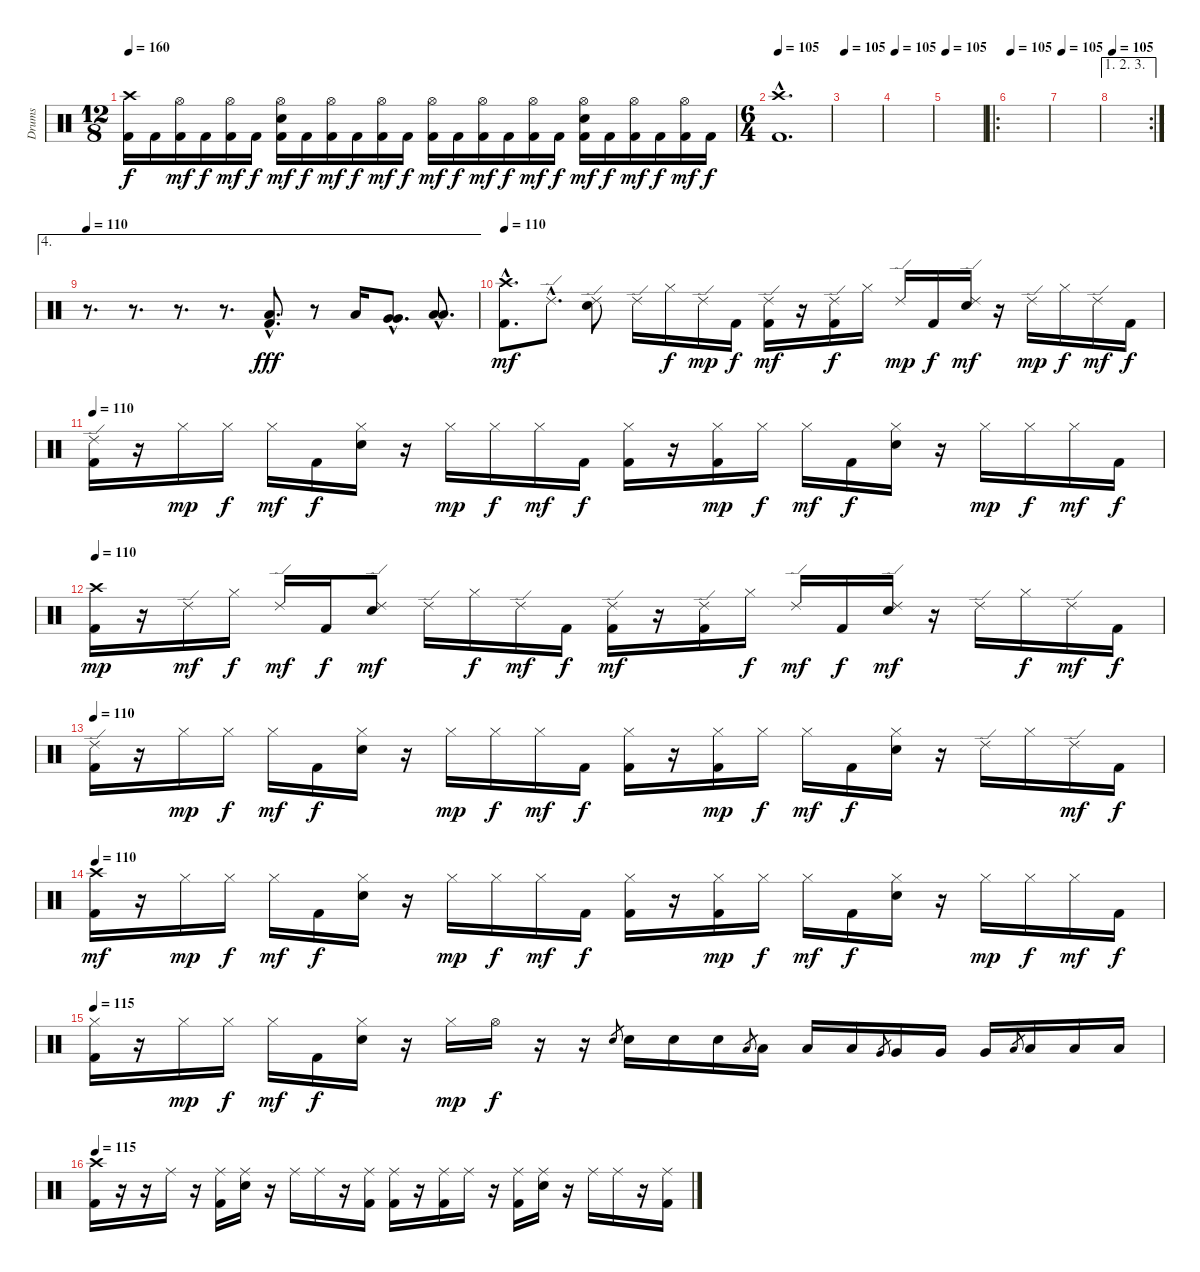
\track ("Drums" "Drums") {instrument percussion}
\staff {score}
\articulation defaults
\ts (12 8)
\tempo 160
\clef neutral
\ks c
("Crash high (hit)" "Kick (hit) 2").16{dy f} "Kick (hit) 2".16 ("Hi-Hat (open)" "Kick (hit) 2").16{dy mf} "Kick (hit) 2".16{dy f} ("Hi-Hat (open)" "Kick (hit) 2").16{dy mf} "Kick (hit) 2".16{dy f} ("Hi-Hat (open)" "Electric Snare (hit)" "Kick (hit) 2").16{dy mf} "Kick (hit) 2".16{dy f} ("Hi-Hat (open)" "Kick (hit) 2").16{dy mf} "Kick (hit) 2".16{dy f} ("Hi-Hat (open)" "Kick (hit) 2").16{dy mf} "Kick (hit) 2".16{dy f} ("Hi-Hat (open)" "Kick (hit) 2").16{dy mf} "Kick (hit) 2".16{dy f} ("Hi-Hat (open)" "Kick (hit) 2").16{dy mf} "Kick (hit) 2".16{dy f} ("Hi-Hat (open)" "Kick (hit) 2").16{dy mf} "Kick (hit) 2".16{dy f} ("Hi-Hat (open)" "Electric Snare (hit)" "Kick (hit) 2").16{dy mf} "Kick (hit) 2".16{dy f} ("Hi-Hat (open)" "Kick (hit) 2").16{dy mf} "Kick (hit) 2".16{dy f} ("Hi-Hat (open)" "Kick (hit) 2").16{dy mf} "Kick (hit) 2".16{dy f} |
\ts (6 4)
\tempo 105
("Crash high (hit)"{hac} "Kick (hit) 2"{hac}).1{d} |
\tempo 105
|
\tempo 105
|
\tempo 105
|
\ro
\tempo 105
|
\tempo 105
|
\ae (1 2 3)
\rc 2
\tempo 105
|
\ae 4
\tempo 110
r.8{d} r.8{d} r.8{d} r.8{d} ("Low Tom (hit)"{hac} "Kick (hit) 2"{hac}).8{d dy fff} r.8 "Low Tom (hit)".16 ("Very Low Tom (hit)"{hac} "Very Low Tom (hit)"{hac}).8{d} ("Low Floor Tom (hit)"{hac} "Low Floor Tom (hit)"{hac}).8{d} |
\tempo 110
("Crash high (hit)"{hac} "Kick (hit) 2"{hac}).8{d dy mf} "Ride (edge) 2"{hac}.8{d} ("Ride (edge) 2" "Electric Snare (hit)").8 "Ride (edge) 2".16 "Hi-Hat (closed)".16{dy f} "Ride (edge) 2".16{dy mp} "Kick (hit) 2".16{dy f} ("Ride (edge) 2" "Kick (hit) 2").16{dy mf} r.16 ("Ride (edge) 2" "Kick (hit) 2").16{dy f} "Hi-Hat (closed)".16 "Ride (edge) 2".16{dy mp} "Kick (hit) 2".16{dy f} ("Ride (edge) 2" "Electric Snare (hit)").16{dy mf} r.16 "Ride (edge) 2".16{dy mp} "Hi-Hat (closed)".16{dy f} "Ride (edge) 2".16{dy mf} "Kick (hit) 2".16{dy f} |
\tempo 110
("Ride (edge) 2" "Kick (hit) 2").16 r.16 "Hi-Hat (closed)".16{dy mp} "Hi-Hat (closed)".16{dy f} "Hi-Hat (closed)".16{dy mf} "Kick (hit) 2".16{dy f} ("Hi-Hat (closed)" "Electric Snare (hit)").16 r.16 "Hi-Hat (closed)".16{dy mp} "Hi-Hat (closed)".16{dy f} "Hi-Hat (closed)".16{dy mf} "Kick (hit) 2".16{dy f} ("Hi-Hat (closed)" "Kick (hit) 2").16 r.16 ("Hi-Hat (closed)" "Kick (hit) 2").16{dy mp} "Hi-Hat (closed)".16{dy f} "Hi-Hat (closed)".16{dy mf} "Kick (hit) 2".16{dy f} ("Hi-Hat (closed)" "Electric Snare (hit)").16 r.16 "Hi-Hat (closed)".16{dy mp} "Hi-Hat (closed)".16{dy f} "Hi-Hat (closed)".16{dy mf} "Kick (hit) 2".16{dy f} |
\tempo 110
("Crash high (hit)" "Kick (hit) 2").16{dy mp} r.16 "Ride (edge) 2".16{dy mf} "Hi-Hat (closed)".16{dy f} "Ride (edge) 2".16{dy mf} "Kick (hit) 2".16{dy f} ("Ride (edge) 2" "Electric Snare (hit)").8{dy mf} "Ride (edge) 2".16 "Hi-Hat (closed)".16{dy f} "Ride (edge) 2".16{dy mf} "Kick (hit) 2".16{dy f} ("Ride (edge) 2" "Kick (hit) 2").16{dy mf} r.16 ("Ride (edge) 2" "Kick (hit) 2").16 "Hi-Hat (closed)".16{dy f} "Ride (edge) 2".16{dy mf} "Kick (hit) 2".16{dy f} ("Ride (edge) 2" "Electric Snare (hit)").16{dy mf} r.16 "Ride (edge) 2".16 "Hi-Hat (closed)".16{dy f} "Ride (edge) 2".16{dy mf} "Kick (hit) 2".16{dy f} |
\tempo 110
("Ride (edge) 2" "Kick (hit) 2").16 r.16 "Hi-Hat (closed)".16{dy mp} "Hi-Hat (closed)".16{dy f} "Hi-Hat (closed)".16{dy mf} "Kick (hit) 2".16{dy f} ("Hi-Hat (closed)" "Electric Snare (hit)").16 r.16 "Hi-Hat (closed)".16{dy mp} "Hi-Hat (closed)".16{dy f} "Hi-Hat (closed)".16{dy mf} "Kick (hit) 2".16{dy f} ("Hi-Hat (closed)" "Kick (hit) 2").16 r.16 ("Hi-Hat (closed)" "Kick (hit) 2").16{dy mp} "Hi-Hat (closed)".16{dy f} "Hi-Hat (closed)".16{dy mf} "Kick (hit) 2".16{dy f} ("Hi-Hat (closed)" "Electric Snare (hit)").16 r.16 "Ride (edge) 2".16 "Hi-Hat (closed)".16 "Ride (edge) 2".16{dy mf} "Kick (hit) 2".16{dy f} |
\tempo 110
("Crash high (hit)" "Kick (hit) 2").16{dy mf} r.16 "Hi-Hat (closed)".16{dy mp} "Hi-Hat (closed)".16{dy f} "Hi-Hat (closed)".16{dy mf} "Kick (hit) 2".16{dy f} ("Hi-Hat (closed)" "Electric Snare (hit)").16 r.16 "Hi-Hat (closed)".16{dy mp} "Hi-Hat (closed)".16{dy f} "Hi-Hat (closed)".16{dy mf} "Kick (hit) 2".16{dy f} ("Hi-Hat (closed)" "Kick (hit) 2").16 r.16 ("Hi-Hat (closed)" "Kick (hit) 2").16{dy mp} "Hi-Hat (closed)".16{dy f} "Hi-Hat (closed)".16{dy mf} "Kick (hit) 2".16{dy f} ("Hi-Hat (closed)" "Electric Snare (hit)").16 r.16 "Hi-Hat (closed)".16{dy mp} "Hi-Hat (closed)".16{dy f} "Hi-Hat (closed)".16{dy mf} "Kick (hit) 2".16{dy f} |
\tempo 115
("Hi-Hat (closed)" "Kick (hit) 2").16 r.16 "Hi-Hat (closed)".16{dy mp} "Hi-Hat (closed)".16{dy f} "Hi-Hat (closed)".16{dy mf} "Kick (hit) 2".16{dy f} ("Hi-Hat (closed)" "Electric Snare (hit)").16 r.16 "Hi-Hat (closed)".16{dy mp} "Hi-Hat (open)".16{dy f} r.16 r.16 "Electric Snare (hit)".8{gr} "Electric Snare (hit)".16 "Electric Snare (hit)".16 "Electric Snare (hit)".16 "Low Tom (hit)".8{gr} "Low Tom (hit)".16 "Low Tom (hit)".16 "Low Tom (hit)".16 "Very Low Tom (hit)".8{gr} "Very Low Tom (hit)".16 "Very Low Tom (hit)".16 "Very Low Tom (hit)".16 "Low Floor Tom (hit)".8{gr} "Low Floor Tom (hit)".16 "Low Floor Tom (hit)".16 "Low Floor Tom (hit)".16 |
\tempo 115
("Crash high (hit)" "Kick (hit) 2").16 r.16 r.16 "Ride (middle)".16 r.16 ("Ride (middle)" "Kick (hit) 2").16 ("Ride (middle)" "Electric Snare (hit)").16 r.16 "Ride (middle)".16 "Ride (middle)".16 r.16 ("Ride (middle)" "Kick (hit) 2").16 ("Ride (middle)" "Kick (hit) 2").16 r.16 ("Ride (middle)" "Kick (hit) 2").16 "Ride (middle)".16 r.16 ("Ride (middle)" "Kick (hit) 2").16 ("Ride (middle)" "Electric Snare (hit)").16 r.16 "Ride (middle)".16 "Ride (middle)".16 r.16 ("Ride (middle)" "Kick (hit) 2").16
